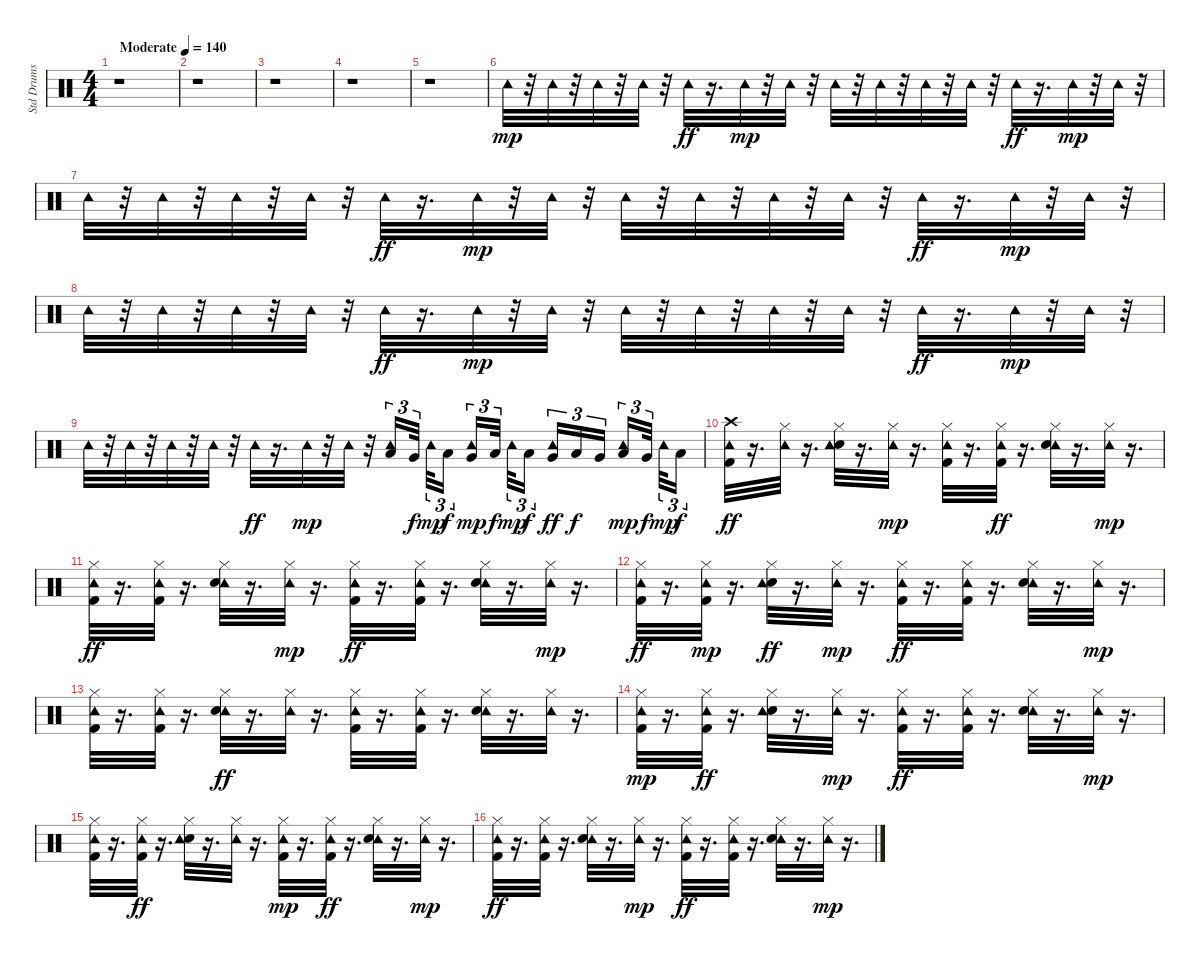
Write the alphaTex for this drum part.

\track ("Std Drums" "Std Drums") {instrument percussion}
\staff {score}
\articulation defaults
\ts (4 4)
\tempo (140 "Moderate")
\clef neutral
\ks c
r.1{dy mp} |
r.1 |
r.1 |
r.1 |
r.1 |
"Tambourine (hit)".32 r.32 "Tambourine (hit)".32 r.32 "Tambourine (hit)".32 r.32 "Tambourine (hit)".32 r.32 "Tambourine (hit)".32{dy ff} r.16{d} "Tambourine (hit)".32{dy mp} r.32 "Tambourine (hit)".32 r.32 "Tambourine (hit)".32 r.32 "Tambourine (hit)".32 r.32 "Tambourine (hit)".32 r.32 "Tambourine (hit)".32 r.32 "Tambourine (hit)".32{dy ff} r.16{d} "Tambourine (hit)".32{dy mp} r.32 "Tambourine (hit)".32 r.32 |
"Tambourine (hit)".32 r.32 "Tambourine (hit)".32 r.32 "Tambourine (hit)".32 r.32 "Tambourine (hit)".32 r.32 "Tambourine (hit)".32{dy ff} r.16{d} "Tambourine (hit)".32{dy mp} r.32 "Tambourine (hit)".32 r.32 "Tambourine (hit)".32 r.32 "Tambourine (hit)".32 r.32 "Tambourine (hit)".32 r.32 "Tambourine (hit)".32 r.32 "Tambourine (hit)".32{dy ff} r.16{d} "Tambourine (hit)".32{dy mp} r.32 "Tambourine (hit)".32 r.32 |
"Tambourine (hit)".32 r.32 "Tambourine (hit)".32 r.32 "Tambourine (hit)".32 r.32 "Tambourine (hit)".32 r.32 "Tambourine (hit)".32{dy ff} r.16{d} "Tambourine (hit)".32{dy mp} r.32 "Tambourine (hit)".32 r.32 "Tambourine (hit)".32 r.32 "Tambourine (hit)".32 r.32 "Tambourine (hit)".32 r.32 "Tambourine (hit)".32 r.32 "Tambourine (hit)".32{dy ff} r.16{d} "Tambourine (hit)".32{dy mp} r.32 "Tambourine (hit)".32 r.32 |
"Tambourine (hit)".32 r.32 "Tambourine (hit)".32 r.32 "Tambourine (hit)".32 r.32 "Tambourine (hit)".32 r.32 "Tambourine (hit)".32{dy ff} r.16{d} "Tambourine (hit)".32{dy mp} r.32 "Tambourine (hit)".32 r.32 ("Low Floor Tom (hit)" "Tambourine (hit)").16{tu (3 2)} "Very Low Tom (hit)".32{tu (3 2) dy f} "Tambourine (hit)".32{tu (3 2) dy mp} "Low Floor Tom (hit)".16{tu (3 2) dy f} ("Tambourine (hit)" "Very Low Tom (hit)").16{tu (3 2) dy mp} "Low Floor Tom (hit)".32{tu (3 2) dy f} "Tambourine (hit)".32{tu (3 2) dy mp} "Low Floor Tom (hit)".16{tu (3 2) dy f} ("Tambourine (hit)" "Very Low Tom (hit)").16{tu (3 2) dy ff} "Low Floor Tom (hit)".16{tu (3 2) dy f} "Very Low Tom (hit)".16{tu (3 2)} ("Low Floor Tom (hit)" "Tambourine (hit)").16{tu (3 2) dy mp} "Very Low Tom (hit)".32{tu (3 2) dy f} "Tambourine (hit)".32{tu (3 2) dy mp} "Low Floor Tom (hit)".16{tu (3 2) dy f} |
("Tambourine (hit)" "Crash high (hit)" "Kick (hit) 2").32{dy ff} r.16{d} ("Tambourine (hit)" "Hi-Hat (closed)").32 r.16{d} ("Snare (hit) 2" "Hi-Hat (closed)" "Tambourine (hit)").32 r.16{d} ("Hi-Hat (closed)" "Tambourine (hit)").32{dy mp} r.16{d} ("Hi-Hat (closed)" "Kick (hit) 2" "Tambourine (hit)").32 r.16{d} ("Tambourine (hit)" "Hi-Hat (closed)" "Kick (hit) 2").32{dy ff} r.16{d} ("Tambourine (hit)" "Hi-Hat (closed)" "Snare (hit) 2").32 r.16{d} ("Hi-Hat (closed)" "Tambourine (hit)").32{dy mp} r.16{d} |
("Hi-Hat (closed)" "Tambourine (hit)" "Kick (hit) 2").32{dy ff} r.16{d} ("Kick (hit) 2" "Tambourine (hit)" "Hi-Hat (closed)").32 r.16{d} ("Tambourine (hit)" "Snare (hit) 2" "Hi-Hat (closed)").32 r.16{d} ("Hi-Hat (closed)" "Tambourine (hit)").32{dy mp} r.16{d} ("Tambourine (hit)" "Kick (hit) 2" "Hi-Hat (closed)").32{dy ff} r.16{d} ("Tambourine (hit)" "Kick (hit) 2" "Hi-Hat (closed)").32 r.16{d} ("Tambourine (hit)" "Hi-Hat (closed)" "Snare (hit) 2").32 r.16{d} ("Hi-Hat (closed)" "Tambourine (hit)").32{dy mp} r.16{d} |
("Kick (hit) 2" "Tambourine (hit)" "Hi-Hat (closed)").32{dy ff} r.16{d} ("Hi-Hat (closed)" "Kick (hit) 2" "Tambourine (hit)").32{dy mp} r.16{d} ("Snare (hit) 2" "Hi-Hat (closed)" "Tambourine (hit)").32{dy ff} r.16{d} ("Hi-Hat (closed)" "Tambourine (hit)").32{dy mp} r.16{d} ("Kick (hit) 2" "Tambourine (hit)" "Hi-Hat (closed)").32{dy ff} r.16{d} ("Hi-Hat (closed)" "Tambourine (hit)" "Kick (hit) 2").32 r.16{d} ("Tambourine (hit)" "Snare (hit) 2" "Hi-Hat (closed)").32 r.16{d} ("Hi-Hat (closed)" "Tambourine (hit)").32{dy mp} r.16{d} |
("Kick (hit) 2" "Hi-Hat (closed)" "Tambourine (hit)").32 r.16{d} ("Kick (hit) 2" "Hi-Hat (closed)" "Tambourine (hit)").32 r.16{d} ("Tambourine (hit)" "Hi-Hat (closed)" "Snare (hit) 2").32{dy ff} r.16{d} ("Tambourine (hit)" "Hi-Hat (closed)").32 r.16{d} ("Kick (hit) 2" "Tambourine (hit)" "Hi-Hat (closed)").32 r.16{d} ("Tambourine (hit)" "Kick (hit) 2" "Hi-Hat (closed)").32 r.16{d} ("Hi-Hat (closed)" "Tambourine (hit)" "Snare (hit) 2").32 r.16{d} ("Tambourine (hit)" "Hi-Hat (closed)").32 r.16{d} |
("Hi-Hat (closed)" "Kick (hit) 2" "Tambourine (hit)").32{dy mp} r.16{d} ("Kick (hit) 2" "Tambourine (hit)" "Hi-Hat (closed)").32{dy ff} r.16{d} ("Hi-Hat (closed)" "Snare (hit) 2" "Tambourine (hit)").32 r.16{d} ("Hi-Hat (closed)" "Tambourine (hit)").32{dy mp} r.16{d} ("Tambourine (hit)" "Kick (hit) 2" "Hi-Hat (closed)").32{dy ff} r.16{d} ("Tambourine (hit)" "Kick (hit) 2" "Hi-Hat (closed)").32 r.16{d} ("Tambourine (hit)" "Snare (hit) 2" "Hi-Hat (closed)").32 r.16{d} ("Hi-Hat (closed)" "Tambourine (hit)").32{dy mp} r.16{d} |
("Kick (hit) 2" "Hi-Hat (closed)" "Tambourine (hit)").32 r.16{d} ("Tambourine (hit)" "Kick (hit) 2" "Hi-Hat (closed)").32{dy ff} r.16{d} ("Snare (hit) 2" "Hi-Hat (closed)" "Tambourine (hit)").32 r.16{d} ("Tambourine (hit)" "Hi-Hat (closed)").32 r.16{d} ("Hi-Hat (closed)" "Kick (hit) 2" "Tambourine (hit)").32{dy mp} r.16{d} ("Kick (hit) 2" "Tambourine (hit)" "Hi-Hat (closed)").32{dy ff} r.16{d} ("Tambourine (hit)" "Snare (hit) 2" "Hi-Hat (closed)").32 r.16{d} ("Hi-Hat (closed)" "Tambourine (hit)").32{dy mp} r.16{d} |
("Tambourine (hit)" "Hi-Hat (closed)" "Kick (hit) 2").32{dy ff} r.16{d} ("Tambourine (hit)" "Hi-Hat (closed)" "Kick (hit) 2").32 r.16{d} ("Tambourine (hit)" "Hi-Hat (closed)" "Snare (hit) 2").32 r.16{d} ("Hi-Hat (closed)" "Tambourine (hit)").32{dy mp} r.16{d} ("Hi-Hat (closed)" "Tambourine (hit)" "Kick (hit) 2").32{dy ff} r.16{d} ("Hi-Hat (closed)" "Tambourine (hit)" "Kick (hit) 2").32 r.16{d} ("Tambourine (hit)" "Hi-Hat (closed)" "Snare (hit) 2").32 r.16{d} ("Hi-Hat (closed)" "Tambourine (hit)").32{dy mp} r.16{d}
